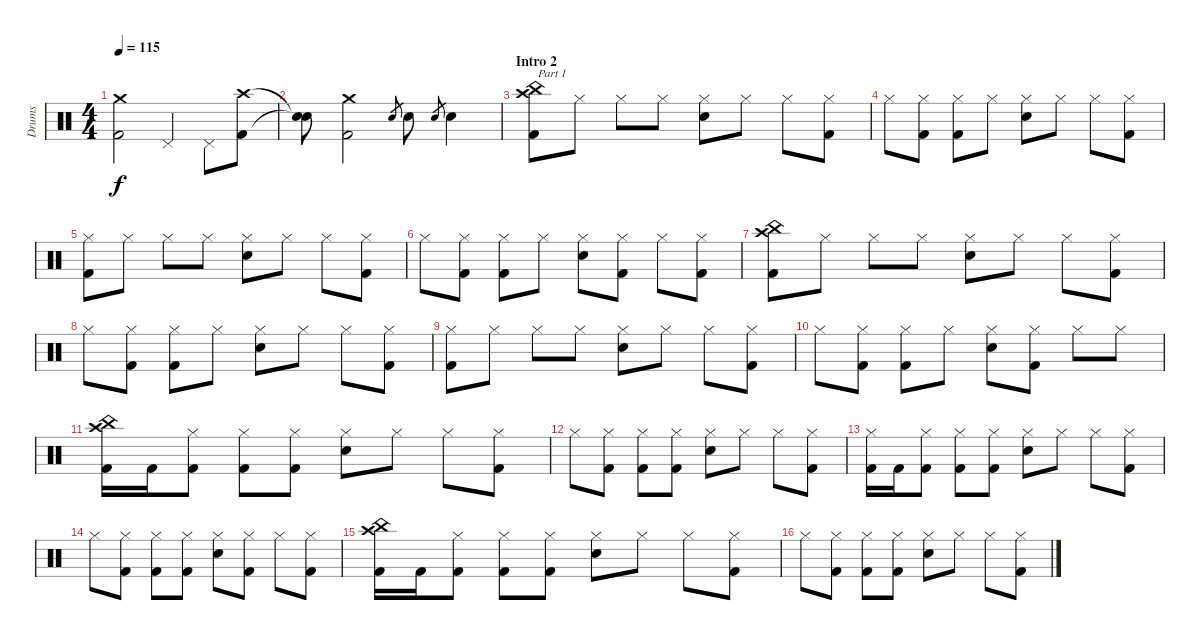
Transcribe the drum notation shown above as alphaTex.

\track ("Drums" "Drums") {instrument percussion}
\staff {score}
\articulation defaults
\ts (4 4)
\tempo 115
\clef neutral
\ks c
("Crash medium (hit)" "Kick (hit) 2").2{dy f} "Pedal Hi-Hat (hit)".4 "Pedal Hi-Hat (hit)".8 ("Crash high (hit)" "Kick (hit) 2").8 |
("Snare (hit)"{t} "Snare (hit)"{t}).8 ("Crash medium (hit)" "Kick (hit) 2").2 "Snare (hit) 2".8{gr} "Snare (hit) 2".8 "Snare (hit) 2".8{gr} "Snare (hit) 2".4 |
\section ("" "Intro 2")
("Crash high (hit)" "China (hit)" "Kick (hit) 2").8{txt "Part 1"} "Hi-Hat (closed)".8 "Hi-Hat (closed)".8 "Hi-Hat (closed)".8 ("Hi-Hat (closed)" "Snare (hit) 2").8 "Hi-Hat (closed)".8 "Hi-Hat (closed)".8 ("Hi-Hat (closed)" "Kick (hit) 2").8 |
"Hi-Hat (closed)".8 ("Hi-Hat (closed)" "Kick (hit) 2").8 ("Hi-Hat (closed)" "Kick (hit) 2").8 "Hi-Hat (closed)".8 ("Hi-Hat (closed)" "Snare (hit) 2").8 "Hi-Hat (closed)".8 "Hi-Hat (closed)".8 ("Hi-Hat (closed)" "Kick (hit) 2").8 |
("Hi-Hat (closed)" "Kick (hit) 2").8 "Hi-Hat (closed)".8 "Hi-Hat (closed)".8 "Hi-Hat (closed)".8 ("Hi-Hat (closed)" "Snare (hit) 2").8 "Hi-Hat (closed)".8 "Hi-Hat (closed)".8 ("Hi-Hat (closed)" "Kick (hit) 2").8 |
"Hi-Hat (closed)".8 ("Hi-Hat (closed)" "Kick (hit) 2").8 ("Hi-Hat (closed)" "Kick (hit) 2").8 "Hi-Hat (closed)".8 ("Hi-Hat (closed)" "Snare (hit) 2").8 ("Hi-Hat (closed)" "Kick (hit) 2").8 "Hi-Hat (closed)".8 ("Hi-Hat (closed)" "Kick (hit) 2").8 |
("Crash high (hit)" "China (hit)" "Kick (hit) 2").8 "Hi-Hat (closed)".8 "Hi-Hat (closed)".8 "Hi-Hat (closed)".8 ("Hi-Hat (closed)" "Snare (hit) 2").8 "Hi-Hat (closed)".8 "Hi-Hat (closed)".8 ("Hi-Hat (closed)" "Kick (hit) 2").8 |
"Hi-Hat (closed)".8 ("Hi-Hat (closed)" "Kick (hit) 2").8 ("Hi-Hat (closed)" "Kick (hit) 2").8 "Hi-Hat (closed)".8 ("Hi-Hat (closed)" "Snare (hit) 2").8 "Hi-Hat (closed)".8 "Hi-Hat (closed)".8 ("Hi-Hat (closed)" "Kick (hit) 2").8 |
("Hi-Hat (closed)" "Kick (hit) 2").8 "Hi-Hat (closed)".8 "Hi-Hat (closed)".8 "Hi-Hat (closed)".8 ("Hi-Hat (closed)" "Snare (hit) 2").8 "Hi-Hat (closed)".8 "Hi-Hat (closed)".8 ("Hi-Hat (closed)" "Kick (hit) 2").8 |
"Hi-Hat (closed)".8 ("Hi-Hat (closed)" "Kick (hit) 2").8 ("Hi-Hat (closed)" "Kick (hit) 2").8 "Hi-Hat (closed)".8 ("Hi-Hat (closed)" "Snare (hit) 2").8 ("Hi-Hat (closed)" "Kick (hit) 2").8 "Hi-Hat (closed)".8 "Hi-Hat (closed)".8 |
("Crash high (hit)" "China (hit)" "Kick (hit) 2").16 "Kick (hit) 2".16 ("Hi-Hat (closed)" "Kick (hit) 2").8 ("Hi-Hat (closed)" "Kick (hit) 2").8 ("Hi-Hat (closed)" "Kick (hit) 2").8 ("Hi-Hat (closed)" "Snare (hit) 2").8 "Hi-Hat (closed)".8 "Hi-Hat (closed)".8 ("Hi-Hat (closed)" "Kick (hit) 2").8 |
"Hi-Hat (closed)".8 ("Hi-Hat (closed)" "Kick (hit) 2").8 ("Hi-Hat (closed)" "Kick (hit) 2").8 ("Hi-Hat (closed)" "Kick (hit) 2").8 ("Hi-Hat (closed)" "Snare (hit) 2").8 "Hi-Hat (closed)".8 "Hi-Hat (closed)".8 ("Hi-Hat (closed)" "Kick (hit) 2").8 |
("Hi-Hat (closed)" "Kick (hit) 2").16 "Kick (hit) 2".16 ("Hi-Hat (closed)" "Kick (hit) 2").8 ("Hi-Hat (closed)" "Kick (hit) 2").8 ("Hi-Hat (closed)" "Kick (hit) 2").8 ("Hi-Hat (closed)" "Snare (hit) 2").8 "Hi-Hat (closed)".8 "Hi-Hat (closed)".8 ("Hi-Hat (closed)" "Kick (hit) 2").8 |
"Hi-Hat (closed)".8 ("Hi-Hat (closed)" "Kick (hit) 2").8 ("Hi-Hat (closed)" "Kick (hit) 2").8 ("Hi-Hat (closed)" "Kick (hit) 2").8 ("Hi-Hat (closed)" "Snare (hit) 2").8 ("Hi-Hat (closed)" "Kick (hit) 2").8 "Hi-Hat (closed)".8 ("Hi-Hat (closed)" "Kick (hit) 2").8 |
("Crash high (hit)" "China (hit)" "Kick (hit) 2").16 "Kick (hit) 2".16 ("Hi-Hat (closed)" "Kick (hit) 2").8 ("Hi-Hat (closed)" "Kick (hit) 2").8 ("Hi-Hat (closed)" "Kick (hit) 2").8 ("Hi-Hat (closed)" "Snare (hit) 2").8 "Hi-Hat (closed)".8 "Hi-Hat (closed)".8 ("Hi-Hat (closed)" "Kick (hit) 2").8 |
"Hi-Hat (closed)".8 ("Hi-Hat (closed)" "Kick (hit) 2").8 ("Hi-Hat (closed)" "Kick (hit) 2").8 ("Hi-Hat (closed)" "Kick (hit) 2").8 ("Hi-Hat (closed)" "Snare (hit) 2").8 "Hi-Hat (closed)".8 "Hi-Hat (closed)".8 ("Hi-Hat (closed)" "Kick (hit) 2").8
